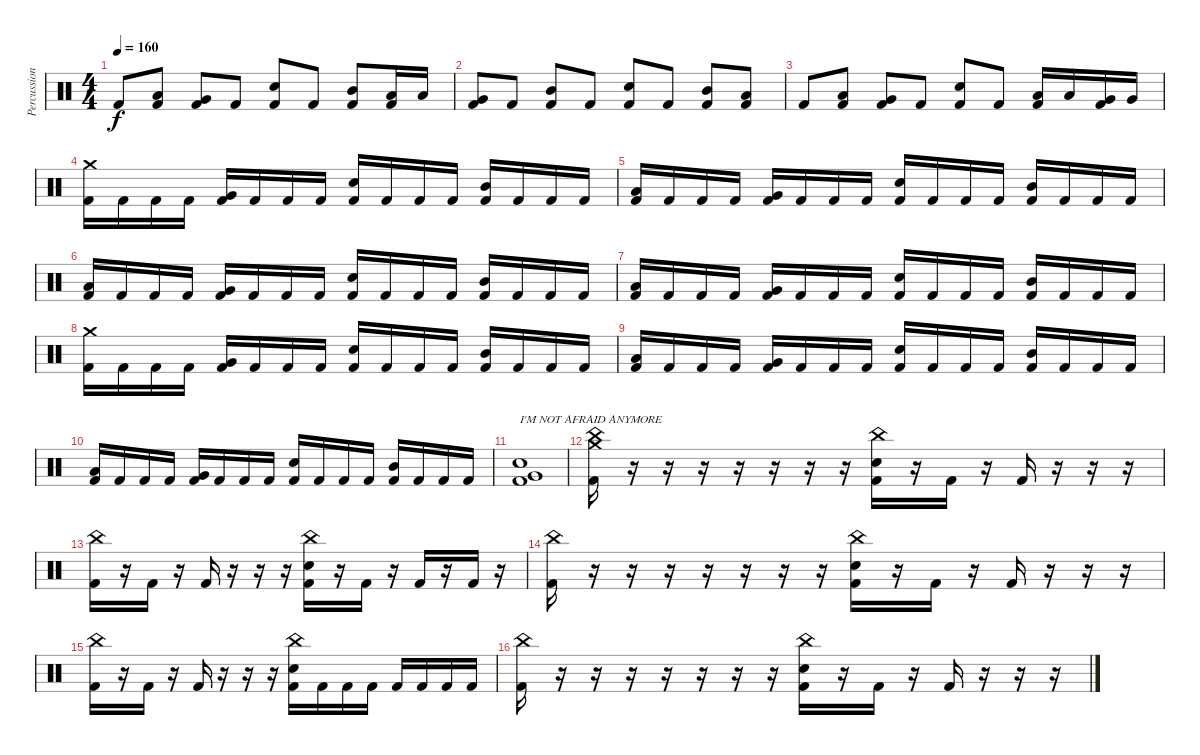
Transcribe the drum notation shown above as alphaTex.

\track ("Percussion" "Percussion") {instrument percussion}
\staff {score}
\articulation defaults
\ts (4 4)
\tempo 160
\clef neutral
\ks c "Kick (hit) 2".8{dy f}
("Low Tom (hit)" "Kick (hit) 2").8 ("Very Low Tom (hit)" "Kick (hit) 2").8 "Kick (hit) 2".8 ("Electric Snare (hit)" "Kick (hit) 2").8 "Kick (hit) 2".8 ("Mid Tom (hit)" "Kick (hit) 2").8 ("Low Tom (hit)" "Kick (hit) 2").16 "Low Tom (hit)".16 |
("Very Low Tom (hit)" "Kick (hit) 2").8 "Kick (hit) 2".8 ("Mid Tom (hit)" "Kick (hit) 2").8 "Kick (hit) 2".8 ("Electric Snare (hit)" "Kick (hit) 2").8 "Kick (hit) 2".8 ("Mid Tom (hit)" "Kick (hit) 2").8 ("Low Tom (hit)" "Kick (hit) 2").8 |
"Kick (hit) 2".8 ("Low Tom (hit)" "Kick (hit) 2").8 ("Very Low Tom (hit)" "Kick (hit) 2").8 "Kick (hit) 2".8 ("Electric Snare (hit)" "Kick (hit) 2").8 "Kick (hit) 2".8 ("Low Tom (hit)" "Kick (hit) 2").16 "Low Tom (hit)".16 ("Very Low Tom (hit)" "Kick (hit) 2").16 "Very Low Tom (hit)".16 |
("Crash medium (hit)" "Kick (hit) 2").16 "Kick (hit) 2".16 "Kick (hit) 2".16 "Kick (hit) 2".16 ("Very Low Tom (hit)" "Kick (hit) 2").16 "Kick (hit) 2".16 "Kick (hit) 2".16 "Kick (hit) 2".16 ("Electric Snare (hit)" "Kick (hit) 2").16 "Kick (hit) 2".16 "Kick (hit) 2".16 "Kick (hit) 2".16 ("Mid Tom (hit)" "Kick (hit) 2").16 "Kick (hit) 2".16 "Kick (hit) 2".16 "Kick (hit) 2".16 |
("Low Tom (hit)" "Kick (hit) 2").16 "Kick (hit) 2".16 "Kick (hit) 2".16 "Kick (hit) 2".16 ("Very Low Tom (hit)" "Kick (hit) 2").16 "Kick (hit) 2".16 "Kick (hit) 2".16 "Kick (hit) 2".16 ("Electric Snare (hit)" "Kick (hit) 2").16 "Kick (hit) 2".16 "Kick (hit) 2".16 "Kick (hit) 2".16 ("Mid Tom (hit)" "Kick (hit) 2").16 "Kick (hit) 2".16 "Kick (hit) 2".16 "Kick (hit) 2".16 |
("Low Tom (hit)" "Kick (hit) 2").16 "Kick (hit) 2".16 "Kick (hit) 2".16 "Kick (hit) 2".16 ("Very Low Tom (hit)" "Kick (hit) 2").16 "Kick (hit) 2".16 "Kick (hit) 2".16 "Kick (hit) 2".16 ("Electric Snare (hit)" "Kick (hit) 2").16 "Kick (hit) 2".16 "Kick (hit) 2".16 "Kick (hit) 2".16 ("Mid Tom (hit)" "Kick (hit) 2").16 "Kick (hit) 2".16 "Kick (hit) 2".16 "Kick (hit) 2".16 |
("Low Tom (hit)" "Kick (hit) 2").16 "Kick (hit) 2".16 "Kick (hit) 2".16 "Kick (hit) 2".16 ("Very Low Tom (hit)" "Kick (hit) 2").16 "Kick (hit) 2".16 "Kick (hit) 2".16 "Kick (hit) 2".16 ("Electric Snare (hit)" "Kick (hit) 2").16 "Kick (hit) 2".16 "Kick (hit) 2".16 "Kick (hit) 2".16 ("Mid Tom (hit)" "Kick (hit) 2").16 "Kick (hit) 2".16 "Kick (hit) 2".16 "Kick (hit) 2".16 |
("Crash medium (hit)" "Kick (hit) 2").16 "Kick (hit) 2".16 "Kick (hit) 2".16 "Kick (hit) 2".16 ("Very Low Tom (hit)" "Kick (hit) 2").16 "Kick (hit) 2".16 "Kick (hit) 2".16 "Kick (hit) 2".16 ("Electric Snare (hit)" "Kick (hit) 2").16 "Kick (hit) 2".16 "Kick (hit) 2".16 "Kick (hit) 2".16 ("Mid Tom (hit)" "Kick (hit) 2").16 "Kick (hit) 2".16 "Kick (hit) 2".16 "Kick (hit) 2".16 |
("Low Tom (hit)" "Kick (hit) 2").16 "Kick (hit) 2".16 "Kick (hit) 2".16 "Kick (hit) 2".16 ("Very Low Tom (hit)" "Kick (hit) 2").16 "Kick (hit) 2".16 "Kick (hit) 2".16 "Kick (hit) 2".16 ("Electric Snare (hit)" "Kick (hit) 2").16 "Kick (hit) 2".16 "Kick (hit) 2".16 "Kick (hit) 2".16 ("Mid Tom (hit)" "Kick (hit) 2").16 "Kick (hit) 2".16 "Kick (hit) 2".16 "Kick (hit) 2".16 |
("Low Tom (hit)" "Kick (hit) 2").16 "Kick (hit) 2".16 "Kick (hit) 2".16 "Kick (hit) 2".16 ("Very Low Tom (hit)" "Kick (hit) 2").16 "Kick (hit) 2".16 "Kick (hit) 2".16 "Kick (hit) 2".16 ("Electric Snare (hit)" "Kick (hit) 2").16 "Kick (hit) 2".16 "Kick (hit) 2".16 "Kick (hit) 2".16 ("Mid Tom (hit)" "Kick (hit) 2").16 "Kick (hit) 2".16 "Kick (hit) 2".16 "Kick (hit) 2".16 |
("Electric Snare (hit)" "Very Low Tom (hit)" "Kick (hit) 2").1{txt "I'M NOT AFRAID ANYMORE"} |
("Crash medium (hit)" "China (hit)" "Kick (hit) 2").16 r.16 r.16 r.16 r.16 r.16 r.16 r.16 ("China (hit)" "Electric Snare (hit)" "Kick (hit) 2").16 r.16 "Kick (hit) 2".16 r.16 "Kick (hit) 2".16 r.16 r.16 r.16 |
("China (hit)" "Kick (hit) 2").16 r.16 "Kick (hit) 2".16 r.16 "Kick (hit) 2".16 r.16 r.16 r.16 ("China (hit)" "Electric Snare (hit)" "Kick (hit) 2").16 r.16 "Kick (hit) 2".16 r.16 "Kick (hit) 2".16 r.16 "Kick (hit) 2".16 r.16 |
("China (hit)" "Kick (hit) 2").16 r.16 r.16 r.16 r.16 r.16 r.16 r.16 ("China (hit)" "Electric Snare (hit)" "Kick (hit) 2").16 r.16 "Kick (hit) 2".16 r.16 "Kick (hit) 2".16 r.16 r.16 r.16 |
("China (hit)" "Kick (hit) 2").16 r.16 "Kick (hit) 2".16 r.16 "Kick (hit) 2".16 r.16 r.16 r.16 ("China (hit)" "Electric Snare (hit)" "Kick (hit) 2").16 "Kick (hit) 2".16 "Kick (hit) 2".16 "Kick (hit) 2".16 "Kick (hit) 2".16 "Kick (hit) 2".16 "Kick (hit) 2".16 "Kick (hit) 2".16 |
("China (hit)" "Kick (hit) 2").16 r.16 r.16 r.16 r.16 r.16 r.16 r.16 ("China (hit)" "Electric Snare (hit)" "Kick (hit) 2").16 r.16 "Kick (hit) 2".16 r.16 "Kick (hit) 2".16 r.16 r.16 r.16
